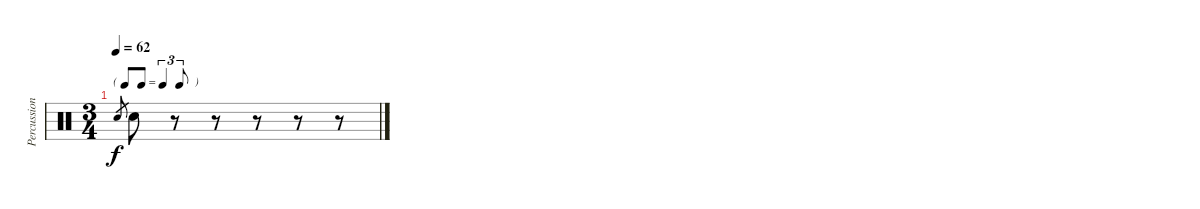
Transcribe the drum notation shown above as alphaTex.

\track ("Percussion" "Percussion") {instrument percussion}
\staff {score}
\articulation defaults
\ts (3 4)
\tf triplet8th
\tempo 62
\clef neutral
\ks c "Snare (hit) 2".8{gr dy f} "Snare (hit) 2".8
r.8 r.8 r.8 r.8 r.8
